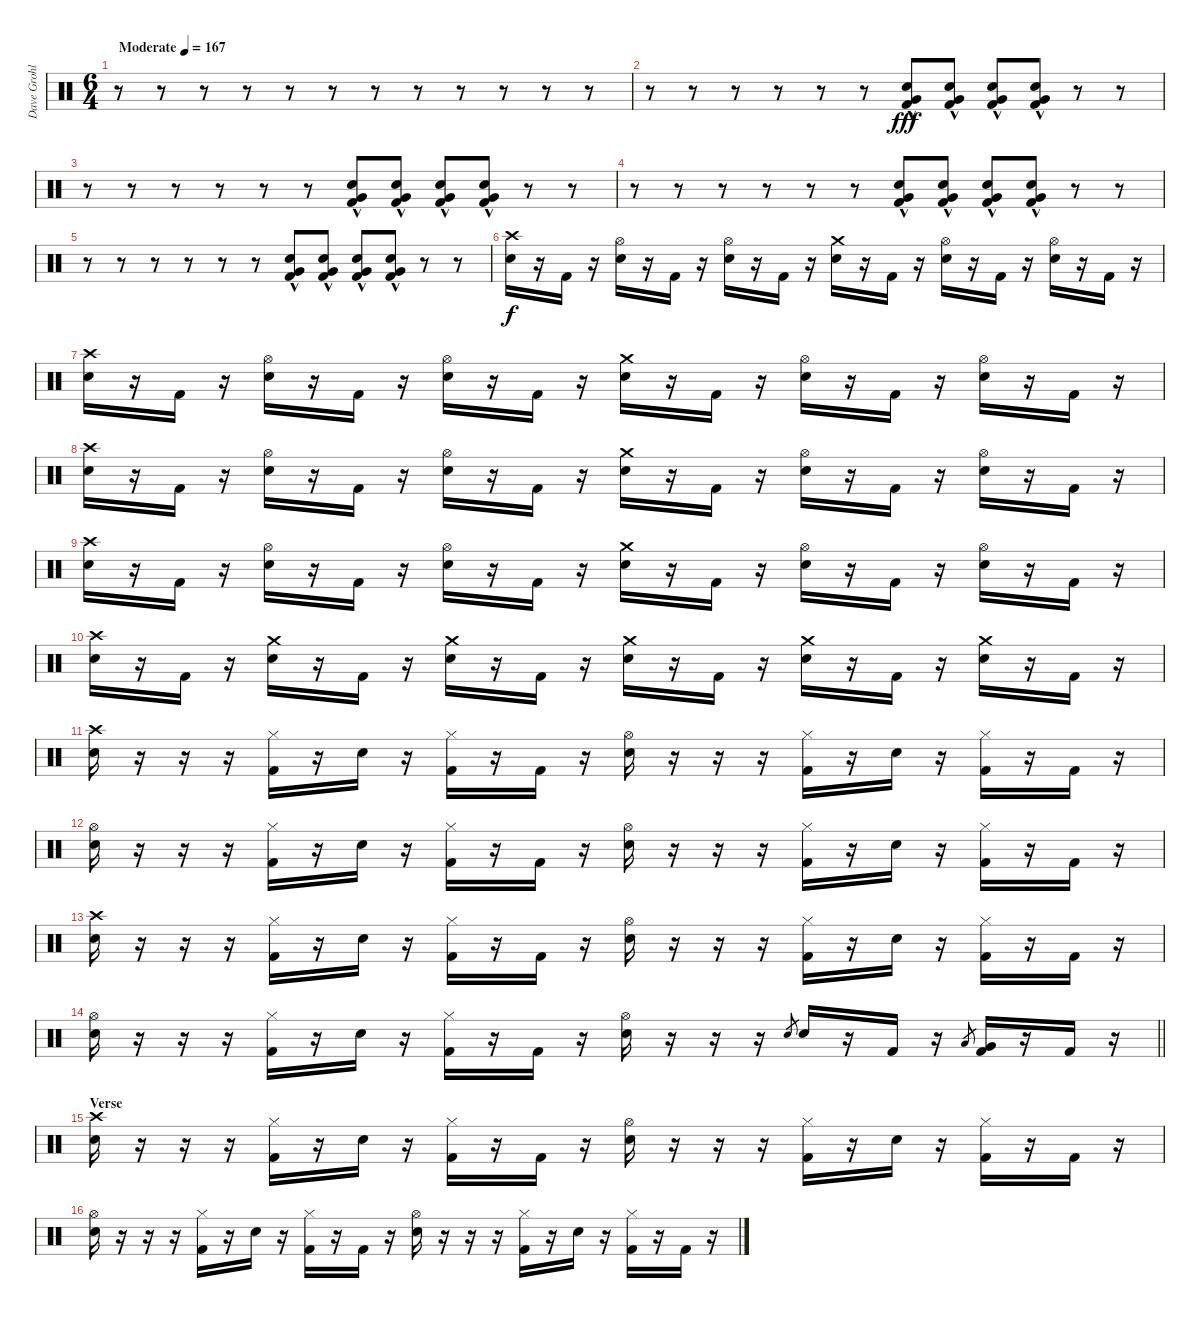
\track ("Dave Grohl" "Dave Grohl") {instrument percussion}
\staff {score}
\articulation defaults
\ts (6 4)
\tempo (167 "Moderate")
\clef neutral
\ks c
r.8{dy fff} r.8 r.8 r.8 r.8 r.8 r.8 r.8 r.8 r.8 r.8 r.8 |
r.8 r.8 r.8 r.8 r.8 r.8 ("Very Low Tom (hit)" "Electric Snare (hit)"{hac} "Kick (hit) 2"{hac}).8 ("Very Low Tom (hit)"{hac} "Electric Snare (hit)" "Kick (hit) 2").8 ("Very Low Tom (hit)"{hac} "Electric Snare (hit)" "Kick (hit) 2").8 ("Very Low Tom (hit)"{hac} "Electric Snare (hit)" "Kick (hit) 2").8 r.8 r.8 |
r.8 r.8 r.8 r.8 r.8 r.8 ("Electric Snare (hit)" "Very Low Tom (hit)" "Kick (hit) 2"{hac}).8 ("Electric Snare (hit)" "Very Low Tom (hit)" "Kick (hit) 2"{hac}).8 ("Electric Snare (hit)" "Very Low Tom (hit)" "Kick (hit) 2"{hac}).8 ("Electric Snare (hit)" "Very Low Tom (hit)" "Kick (hit) 2"{hac}).8 r.8 r.8 |
r.8 r.8 r.8 r.8 r.8 r.8 ("Electric Snare (hit)" "Very Low Tom (hit)" "Kick (hit) 2"{hac}).8 ("Electric Snare (hit)" "Very Low Tom (hit)" "Kick (hit) 2"{hac}).8 ("Electric Snare (hit)" "Very Low Tom (hit)" "Kick (hit) 2"{hac}).8 ("Electric Snare (hit)" "Very Low Tom (hit)" "Kick (hit) 2"{hac}).8 r.8 r.8 |
r.8 r.8 r.8 r.8 r.8 r.8 ("Electric Snare (hit)" "Very Low Tom (hit)"{hac} "Kick (hit) 2").8 ("Electric Snare (hit)" "Very Low Tom (hit)"{hac} "Kick (hit) 2").8 ("Electric Snare (hit)" "Very Low Tom (hit)"{hac} "Kick (hit) 2").8 ("Electric Snare (hit)" "Very Low Tom (hit)"{hac} "Kick (hit) 2").8 r.8 r.8 |
("Crash high (hit)" "Electric Snare (hit)").16{dy f} r.16 "Kick (hit) 2".16 r.16 ("Hi-Hat (open)" "Electric Snare (hit)").16 r.16 "Kick (hit) 2".16 r.16 ("Hi-Hat (open)" "Electric Snare (hit)").16 r.16 "Kick (hit) 2".16 r.16 ("Crash medium (hit)" "Electric Snare (hit)").16 r.16 "Kick (hit) 2".16 r.16 ("Hi-Hat (open)" "Electric Snare (hit)").16 r.16 "Kick (hit) 2".16 r.16 ("Hi-Hat (open)" "Electric Snare (hit)").16 r.16 "Kick (hit) 2".16 r.16 |
("Crash high (hit)" "Electric Snare (hit)").16 r.16 "Kick (hit) 2".16 r.16 ("Hi-Hat (open)" "Electric Snare (hit)").16 r.16 "Kick (hit) 2".16 r.16 ("Hi-Hat (open)" "Electric Snare (hit)").16 r.16 "Kick (hit) 2".16 r.16 ("Crash medium (hit)" "Electric Snare (hit)").16 r.16 "Kick (hit) 2".16 r.16 ("Hi-Hat (open)" "Electric Snare (hit)").16 r.16 "Kick (hit) 2".16 r.16 ("Hi-Hat (open)" "Electric Snare (hit)").16 r.16 "Kick (hit) 2".16 r.16 |
("Crash high (hit)" "Electric Snare (hit)").16 r.16 "Kick (hit) 2".16 r.16 ("Hi-Hat (open)" "Electric Snare (hit)").16 r.16 "Kick (hit) 2".16 r.16 ("Hi-Hat (open)" "Electric Snare (hit)").16 r.16 "Kick (hit) 2".16 r.16 ("Crash medium (hit)" "Electric Snare (hit)").16 r.16 "Kick (hit) 2".16 r.16 ("Hi-Hat (open)" "Electric Snare (hit)").16 r.16 "Kick (hit) 2".16 r.16 ("Hi-Hat (open)" "Electric Snare (hit)").16 r.16 "Kick (hit) 2".16 r.16 |
("Crash high (hit)" "Electric Snare (hit)").16 r.16 "Kick (hit) 2".16 r.16 ("Hi-Hat (open)" "Electric Snare (hit)").16 r.16 "Kick (hit) 2".16 r.16 ("Hi-Hat (open)" "Electric Snare (hit)").16 r.16 "Kick (hit) 2".16 r.16 ("Crash medium (hit)" "Electric Snare (hit)").16 r.16 "Kick (hit) 2".16 r.16 ("Hi-Hat (open)" "Electric Snare (hit)").16 r.16 "Kick (hit) 2".16 r.16 ("Hi-Hat (open)" "Electric Snare (hit)").16 r.16 "Kick (hit) 2".16 r.16 |
("Crash high (hit)" "Electric Snare (hit)").16 r.16 "Kick (hit) 2".16 r.16 ("Crash medium (hit)" "Electric Snare (hit)").16 r.16 "Kick (hit) 2".16 r.16 ("Crash medium (hit)" "Electric Snare (hit)").16 r.16 "Kick (hit) 2".16 r.16 ("Crash medium (hit)" "Electric Snare (hit)").16 r.16 "Kick (hit) 2".16 r.16 ("Crash medium (hit)" "Electric Snare (hit)").16 r.16 "Kick (hit) 2".16 r.16 ("Crash medium (hit)" "Electric Snare (hit)").16 r.16 "Kick (hit) 2".16 r.16 |
("Crash high (hit)" "Electric Snare (hit)").16 r.16 r.16 r.16 ("Hi-Hat (closed)" "Kick (hit) 2").16 r.16 "Electric Snare (hit)".16 r.16 ("Hi-Hat (closed)" "Kick (hit) 2").16 r.16 "Kick (hit) 2".16 r.16 ("Hi-Hat (open)" "Electric Snare (hit)").16 r.16 r.16 r.16 ("Hi-Hat (closed)" "Kick (hit) 2").16 r.16 "Electric Snare (hit)".16 r.16 ("Hi-Hat (closed)" "Kick (hit) 2").16 r.16 "Kick (hit) 2".16 r.16 |
("Hi-Hat (open)" "Electric Snare (hit)").16 r.16 r.16 r.16 ("Hi-Hat (closed)" "Kick (hit) 2").16 r.16 "Electric Snare (hit)".16 r.16 ("Hi-Hat (closed)" "Kick (hit) 2").16 r.16 "Kick (hit) 2".16 r.16 ("Hi-Hat (open)" "Electric Snare (hit)").16 r.16 r.16 r.16 ("Hi-Hat (closed)" "Kick (hit) 2").16 r.16 "Electric Snare (hit)".16 r.16 ("Hi-Hat (closed)" "Kick (hit) 2").16 r.16 "Kick (hit) 2".16 r.16 |
("Crash high (hit)" "Electric Snare (hit)").16 r.16 r.16 r.16 ("Hi-Hat (closed)" "Kick (hit) 2").16 r.16 "Electric Snare (hit)".16 r.16 ("Hi-Hat (closed)" "Kick (hit) 2").16 r.16 "Kick (hit) 2".16 r.16 ("Hi-Hat (open)" "Electric Snare (hit)").16 r.16 r.16 r.16 ("Hi-Hat (closed)" "Kick (hit) 2").16 r.16 "Electric Snare (hit)".16 r.16 ("Hi-Hat (closed)" "Kick (hit) 2").16 r.16 "Kick (hit) 2".16 r.16 |
\barLineRight lightlight
("Hi-Hat (open)" "Electric Snare (hit)").16 r.16 r.16 r.16 ("Hi-Hat (closed)" "Kick (hit) 2").16 r.16 "Electric Snare (hit)".16 r.16 ("Hi-Hat (closed)" "Kick (hit) 2").16 r.16 "Kick (hit) 2".16 r.16 ("Hi-Hat (open)" "Electric Snare (hit)").16 r.16 r.16 r.16 "Electric Snare (hit)".8{gr} "Electric Snare (hit)".16 r.16 "Kick (hit) 2".16 r.16 "Low Tom (hit)".8{gr} ("Very Low Tom (hit)" "Kick (hit) 2").16 r.16 "Kick (hit) 2".16 r.16 |
\section ("" "Verse")
("Crash high (hit)" "Electric Snare (hit)").16 r.16 r.16 r.16 ("Hi-Hat (closed)" "Kick (hit) 2").16 r.16 "Electric Snare (hit)".16 r.16 ("Hi-Hat (closed)" "Kick (hit) 2").16 r.16 "Kick (hit) 2".16 r.16 ("Hi-Hat (open)" "Electric Snare (hit)").16 r.16 r.16 r.16 ("Hi-Hat (closed)" "Kick (hit) 2").16 r.16 "Electric Snare (hit)".16 r.16 ("Hi-Hat (closed)" "Kick (hit) 2").16 r.16 "Kick (hit) 2".16 r.16 |
("Hi-Hat (open)" "Electric Snare (hit)").16 r.16 r.16 r.16 ("Hi-Hat (closed)" "Kick (hit) 2").16 r.16 "Electric Snare (hit)".16 r.16 ("Hi-Hat (closed)" "Kick (hit) 2").16 r.16 "Kick (hit) 2".16 r.16 ("Hi-Hat (open)" "Electric Snare (hit)").16 r.16 r.16 r.16 ("Hi-Hat (closed)" "Kick (hit) 2").16 r.16 "Electric Snare (hit)".16 r.16 ("Hi-Hat (closed)" "Kick (hit) 2").16 r.16 "Kick (hit) 2".16 r.16
